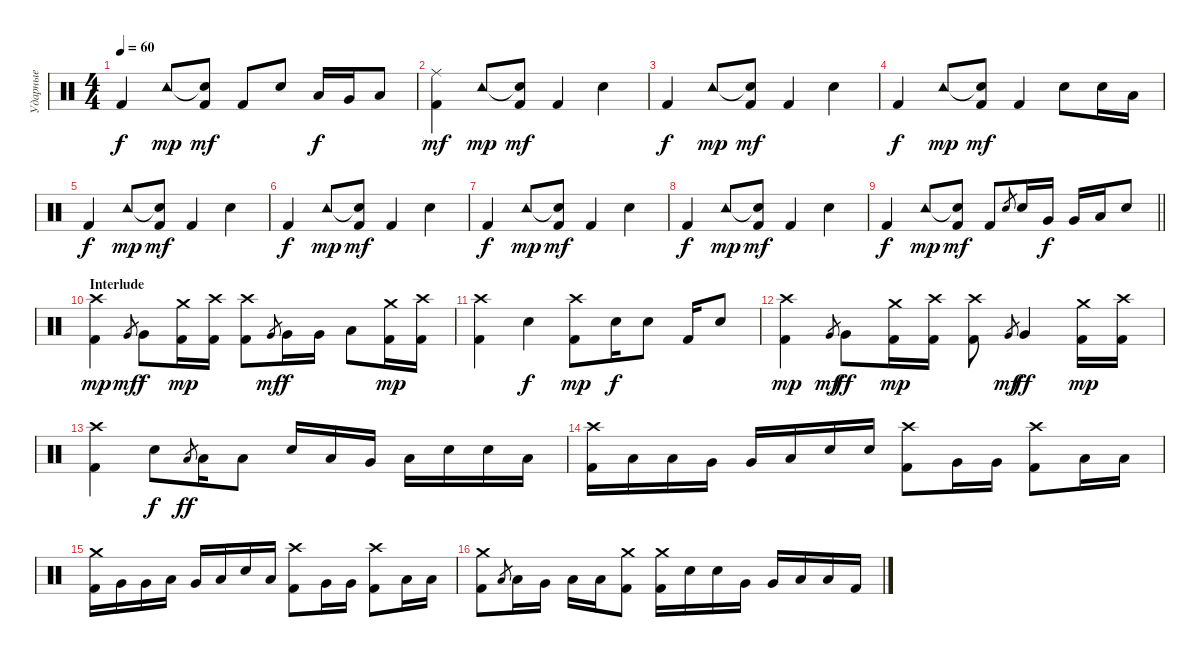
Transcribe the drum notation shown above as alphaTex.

\track ("Ударные" "Ударные") {instrument percussion}
\staff {score}
\articulation defaults
\ts (4 4)
\tempo 60
\clef neutral
\ks c "Kick (hit) 2".4{dy f} "Tambourine (hit)".8{dy mp}
("Snare (hit)"{t} "Kick (hit) 2").8{dy mf} "Kick (hit) 2".8 "Snare (hit) 2".8 "Low Tom (hit)".16{dy f} "Very Low Tom (hit)".16 "Low Floor Tom (hit)".8 |
("Ride (middle)" "Kick (hit) 2").4{dy mf} "Tambourine (hit)".8{dy mp} ("Snare (hit)"{t} "Kick (hit) 2").8{dy mf} "Kick (hit) 2".4 "Snare (hit) 2".4 |
"Kick (hit) 2".4{dy f} "Tambourine (hit)".8{dy mp} ("Snare (hit)"{t} "Kick (hit) 2").8{dy mf} "Kick (hit) 2".4 "Snare (hit) 2".4 |
"Kick (hit) 2".4{dy f} "Tambourine (hit)".8{dy mp} ("Snare (hit)"{t} "Kick (hit) 2").8{dy mf} "Kick (hit) 2".4 "Snare (hit) 2".8 "Snare (hit) 2".16 "Low Floor Tom (hit)".16 |
"Kick (hit) 2".4{dy f} "Tambourine (hit)".8{dy mp} ("Snare (hit)"{t} "Kick (hit) 2").8{dy mf} "Kick (hit) 2".4 "Snare (hit) 2".4 |
"Kick (hit) 2".4{dy f} "Tambourine (hit)".8{dy mp} ("Snare (hit)"{t} "Kick (hit) 2").8{dy mf} "Kick (hit) 2".4 "Snare (hit) 2".4 |
"Kick (hit) 2".4{dy f} "Tambourine (hit)".8{dy mp} ("Snare (hit)"{t} "Kick (hit) 2").8{dy mf} "Kick (hit) 2".4 "Snare (hit) 2".4 |
"Kick (hit) 2".4{dy f} "Tambourine (hit)".8{dy mp} ("Snare (hit)"{t} "Kick (hit) 2").8{dy mf} "Kick (hit) 2".4 "Snare (hit) 2".4 |
\barLineRight lightlight "Kick (hit) 2".4{dy f} "Tambourine (hit)".8{dy mp}
("Snare (hit)"{t} "Kick (hit) 2").8{dy mf} "Kick (hit) 2".8 "Snare (hit) 2".8{gr} "Snare (hit) 2".16 "Very Low Tom (hit)".16{dy f} "Very Low Tom (hit)".16 "Low Floor Tom (hit)".16 "Snare (hit) 2".8 |
\section ("" "Interlude")
("Crash high (hit)" "Kick (hit) 2").4{dy mp} "Very Low Tom (hit)".8{gr dy mf} "Very Low Tom (hit)".8{dy f} ("Crash medium (hit)" "Kick (hit) 2").16{dy mp} ("Crash high (hit)" "Kick (hit) 2").16 ("Crash high (hit)" "Kick (hit) 2").8 "Very Low Tom (hit)".8{gr dy mf} "Very Low Tom (hit)".16{dy f} "Very Low Tom (hit)".16 "Low Floor Tom (hit)".8 ("Crash medium (hit)" "Kick (hit) 2").16{dy mp} ("Crash high (hit)" "Kick (hit) 2").16 |
("Crash high (hit)" "Kick (hit) 2").4 "Snare (hit) 2".4{dy f} ("Crash high (hit)" "Kick (hit) 2").8{dy mp} "Snare (hit) 2".16{dy f} "Snare (hit) 2".8 "Kick (hit) 2".16 "Snare (hit) 2".8 |
("Crash high (hit)" "Kick (hit) 2").4{dy mp} "Very Low Tom (hit)".8{gr dy mf} "Very Low Tom (hit)".8{dy ff} ("Crash medium (hit)" "Kick (hit) 2").16{dy mp} ("Crash high (hit)" "Kick (hit) 2").16 ("Crash high (hit)" "Kick (hit) 2").8 "Very Low Tom (hit)".8{gr dy mf} "Very Low Tom (hit)".4{dy ff} ("Crash medium (hit)" "Kick (hit) 2").16{dy mp} ("Crash high (hit)" "Kick (hit) 2").16 |
("Crash high (hit)" "Kick (hit) 2").4 "Snare (hit) 2".8{dy f} "Low Tom (hit)".8{gr dy ff} "Low Tom (hit)".16 "Low Tom (hit)".8 "Snare (hit) 2".16 "Low Tom (hit)".16 "Very Low Tom (hit)".16 "Low Floor Tom (hit)".16 "Snare (hit) 2".16 "Snare (hit) 2".16 "Low Floor Tom (hit)".16 |
("Crash high (hit)" "Kick (hit) 2").16 "Low Tom (hit)".16 "Low Tom (hit)".16 "Very Low Tom (hit)".16 "Very Low Tom (hit)".16 "Low Floor Tom (hit)".16 "Snare (hit) 2".16 "Snare (hit) 2".16 ("Crash high (hit)" "Kick (hit) 2").8 "Very Low Tom (hit)".16 "Very Low Tom (hit)".16 ("Crash high (hit)" "Kick (hit) 2").8 "Low Floor Tom (hit)".16 "Low Floor Tom (hit)".16 |
("Crash medium (hit)" "Kick (hit) 2").16 "Very Low Tom (hit)".16 "Very Low Tom (hit)".16 "Low Floor Tom (hit)".16 "Very Low Tom (hit)".16 "Low Floor Tom (hit)".16 "Snare (hit) 2".16 "Low Floor Tom (hit)".16 ("Crash high (hit)" "Kick (hit) 2").8 "Very Low Tom (hit)".16 "Very Low Tom (hit)".16 ("Crash high (hit)" "Kick (hit) 2").8 "Low Floor Tom (hit)".16 "Low Floor Tom (hit)".16 |
("Crash medium (hit)" "Kick (hit) 2").8 "Low Tom (hit)".8{gr} "Low Tom (hit)".16 "Very Low Tom (hit)".16 "Low Floor Tom (hit)".16 "Low Floor Tom (hit)".16 ("Crash medium (hit)" "Kick (hit) 2").8 ("Crash medium (hit)" "Kick (hit) 2").16 "Snare (hit) 2".16 "Snare (hit) 2".16 "Very Low Tom (hit)".16 "Very Low Tom (hit)".16 "Low Floor Tom (hit)".16 "Low Floor Tom (hit)".16 "Kick (hit) 2".16
